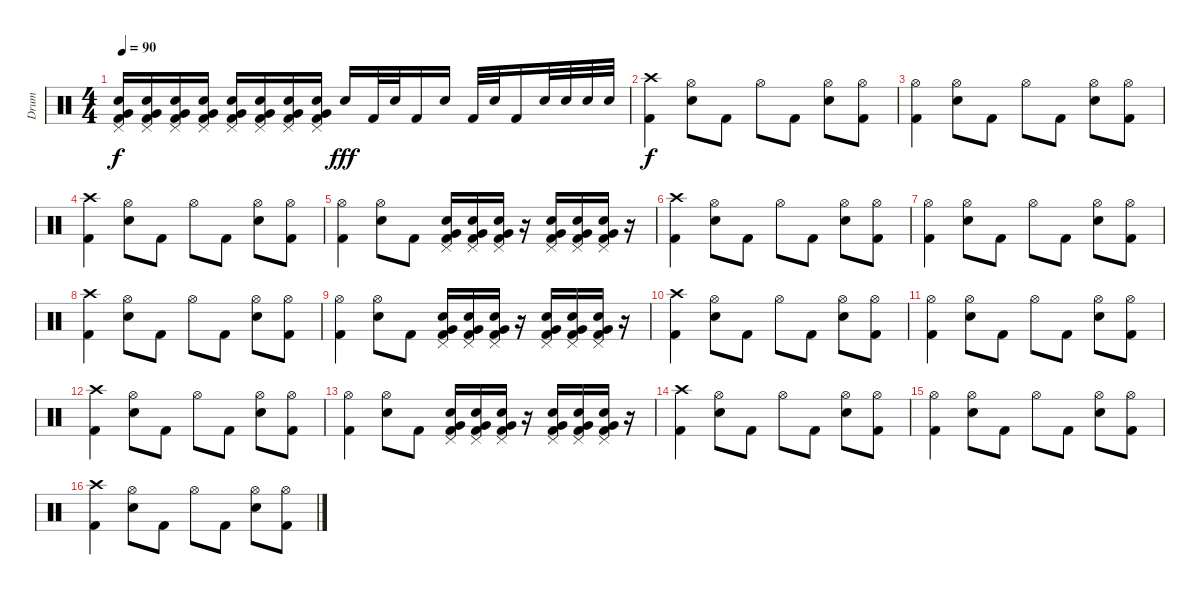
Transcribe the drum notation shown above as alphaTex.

\track ("Drum" "Drum") {instrument percussion}
\staff {score}
\articulation defaults
\ts (4 4)
\tempo 90
\clef neutral
\ks c
("Pedal Hi-Hat (hit)" "Kick (hit) 2" "Electric Snare (hit)" "Very Low Tom (hit)").16{dy f} ("Pedal Hi-Hat (hit)" "Kick (hit) 2" "Electric Snare (hit)" "Very Low Tom (hit)").16 ("Pedal Hi-Hat (hit)" "Kick (hit) 2" "Electric Snare (hit)" "Very Low Tom (hit)").16 ("Pedal Hi-Hat (hit)" "Kick (hit) 2" "Electric Snare (hit)" "Very Low Tom (hit)").16 ("Pedal Hi-Hat (hit)" "Kick (hit) 2" "Electric Snare (hit)" "Very Low Tom (hit)").16 ("Pedal Hi-Hat (hit)" "Kick (hit) 2" "Electric Snare (hit)" "Very Low Tom (hit)").16 ("Pedal Hi-Hat (hit)" "Kick (hit) 2" "Electric Snare (hit)" "Very Low Tom (hit)").16 ("Pedal Hi-Hat (hit)" "Kick (hit) 2" "Electric Snare (hit)" "Very Low Tom (hit)").16 "Electric Snare (hit)".16{dy fff} "Kick (hit) 2".32 "Electric Snare (hit)".32 "Kick (hit) 2".16 "Electric Snare (hit)".16 "Kick (hit) 2".32 "Electric Snare (hit)".32 "Kick (hit) 2".16 "Electric Snare (hit)".32 "Electric Snare (hit)".32 "Electric Snare (hit)".32 "Electric Snare (hit)".32 |
("Crash high (hit)" "Kick (hit) 2").4{dy f} ("Hi-Hat (open)" "Electric Snare (hit)").8 "Kick (hit) 2".8 "Hi-Hat (open)".8 "Kick (hit) 2".8 ("Hi-Hat (open)" "Electric Snare (hit)").8 ("Hi-Hat (open)" "Kick (hit) 2").8 |
("Hi-Hat (open)" "Kick (hit) 2").4 ("Hi-Hat (open)" "Electric Snare (hit)").8 "Kick (hit) 2".8 "Hi-Hat (open)".8 "Kick (hit) 2".8 ("Hi-Hat (open)" "Electric Snare (hit)").8 ("Hi-Hat (open)" "Kick (hit) 2").8 |
("Crash high (hit)" "Kick (hit) 2").4 ("Hi-Hat (open)" "Electric Snare (hit)").8 "Kick (hit) 2".8 "Hi-Hat (open)".8 "Kick (hit) 2".8 ("Hi-Hat (open)" "Electric Snare (hit)").8 ("Hi-Hat (open)" "Kick (hit) 2").8 |
("Hi-Hat (open)" "Kick (hit) 2").4 ("Hi-Hat (open)" "Electric Snare (hit)").8 "Kick (hit) 2".8 ("Pedal Hi-Hat (hit)" "Kick (hit) 2" "Electric Snare (hit)" "Very Low Tom (hit)").16 ("Pedal Hi-Hat (hit)" "Kick (hit) 2" "Electric Snare (hit)" "Very Low Tom (hit)").16 ("Pedal Hi-Hat (hit)" "Kick (hit) 2" "Electric Snare (hit)" "Very Low Tom (hit)").16 r.16 ("Pedal Hi-Hat (hit)" "Kick (hit) 2" "Electric Snare (hit)" "Very Low Tom (hit)").16 ("Pedal Hi-Hat (hit)" "Kick (hit) 2" "Electric Snare (hit)" "Very Low Tom (hit)").16 ("Pedal Hi-Hat (hit)" "Kick (hit) 2" "Electric Snare (hit)" "Very Low Tom (hit)").16 r.16 |
("Crash high (hit)" "Kick (hit) 2").4 ("Hi-Hat (open)" "Electric Snare (hit)").8 "Kick (hit) 2".8 "Hi-Hat (open)".8 "Kick (hit) 2".8 ("Hi-Hat (open)" "Electric Snare (hit)").8 ("Hi-Hat (open)" "Kick (hit) 2").8 |
("Hi-Hat (open)" "Kick (hit) 2").4 ("Hi-Hat (open)" "Electric Snare (hit)").8 "Kick (hit) 2".8 "Hi-Hat (open)".8 "Kick (hit) 2".8 ("Hi-Hat (open)" "Electric Snare (hit)").8 ("Hi-Hat (open)" "Kick (hit) 2").8 |
("Crash high (hit)" "Kick (hit) 2").4 ("Hi-Hat (open)" "Electric Snare (hit)").8 "Kick (hit) 2".8 "Hi-Hat (open)".8 "Kick (hit) 2".8 ("Hi-Hat (open)" "Electric Snare (hit)").8 ("Hi-Hat (open)" "Kick (hit) 2").8 |
("Hi-Hat (open)" "Kick (hit) 2").4 ("Hi-Hat (open)" "Electric Snare (hit)").8 "Kick (hit) 2".8 ("Pedal Hi-Hat (hit)" "Kick (hit) 2" "Electric Snare (hit)" "Very Low Tom (hit)").16 ("Pedal Hi-Hat (hit)" "Kick (hit) 2" "Electric Snare (hit)" "Very Low Tom (hit)").16 ("Pedal Hi-Hat (hit)" "Kick (hit) 2" "Electric Snare (hit)" "Very Low Tom (hit)").16 r.16 ("Pedal Hi-Hat (hit)" "Kick (hit) 2" "Electric Snare (hit)" "Very Low Tom (hit)").16 ("Pedal Hi-Hat (hit)" "Kick (hit) 2" "Electric Snare (hit)" "Very Low Tom (hit)").16 ("Pedal Hi-Hat (hit)" "Kick (hit) 2" "Electric Snare (hit)" "Very Low Tom (hit)").16 r.16 |
("Crash high (hit)" "Kick (hit) 2").4 ("Hi-Hat (open)" "Electric Snare (hit)").8 "Kick (hit) 2".8 "Hi-Hat (open)".8 "Kick (hit) 2".8 ("Hi-Hat (open)" "Electric Snare (hit)").8 ("Hi-Hat (open)" "Kick (hit) 2").8 |
("Hi-Hat (open)" "Kick (hit) 2").4 ("Hi-Hat (open)" "Electric Snare (hit)").8 "Kick (hit) 2".8 "Hi-Hat (open)".8 "Kick (hit) 2".8 ("Hi-Hat (open)" "Electric Snare (hit)").8 ("Hi-Hat (open)" "Kick (hit) 2").8 |
("Crash high (hit)" "Kick (hit) 2").4 ("Hi-Hat (open)" "Electric Snare (hit)").8 "Kick (hit) 2".8 "Hi-Hat (open)".8 "Kick (hit) 2".8 ("Hi-Hat (open)" "Electric Snare (hit)").8 ("Hi-Hat (open)" "Kick (hit) 2").8 |
("Hi-Hat (open)" "Kick (hit) 2").4 ("Hi-Hat (open)" "Electric Snare (hit)").8 "Kick (hit) 2".8 ("Pedal Hi-Hat (hit)" "Kick (hit) 2" "Electric Snare (hit)" "Very Low Tom (hit)").16 ("Pedal Hi-Hat (hit)" "Kick (hit) 2" "Electric Snare (hit)" "Very Low Tom (hit)").16 ("Pedal Hi-Hat (hit)" "Kick (hit) 2" "Electric Snare (hit)" "Very Low Tom (hit)").16 r.16 ("Pedal Hi-Hat (hit)" "Kick (hit) 2" "Electric Snare (hit)" "Very Low Tom (hit)").16 ("Pedal Hi-Hat (hit)" "Kick (hit) 2" "Electric Snare (hit)" "Very Low Tom (hit)").16 ("Pedal Hi-Hat (hit)" "Kick (hit) 2" "Electric Snare (hit)" "Very Low Tom (hit)").16 r.16 |
("Crash high (hit)" "Kick (hit) 2").4 ("Hi-Hat (open)" "Electric Snare (hit)").8 "Kick (hit) 2".8 "Hi-Hat (open)".8 "Kick (hit) 2".8 ("Hi-Hat (open)" "Electric Snare (hit)").8 ("Hi-Hat (open)" "Kick (hit) 2").8 |
("Hi-Hat (open)" "Kick (hit) 2").4 ("Hi-Hat (open)" "Electric Snare (hit)").8 "Kick (hit) 2".8 "Hi-Hat (open)".8 "Kick (hit) 2".8 ("Hi-Hat (open)" "Electric Snare (hit)").8 ("Hi-Hat (open)" "Kick (hit) 2").8 |
("Crash high (hit)" "Kick (hit) 2").4 ("Hi-Hat (open)" "Electric Snare (hit)").8 "Kick (hit) 2".8 "Hi-Hat (open)".8 "Kick (hit) 2".8 ("Hi-Hat (open)" "Electric Snare (hit)").8 ("Hi-Hat (open)" "Kick (hit) 2").8
